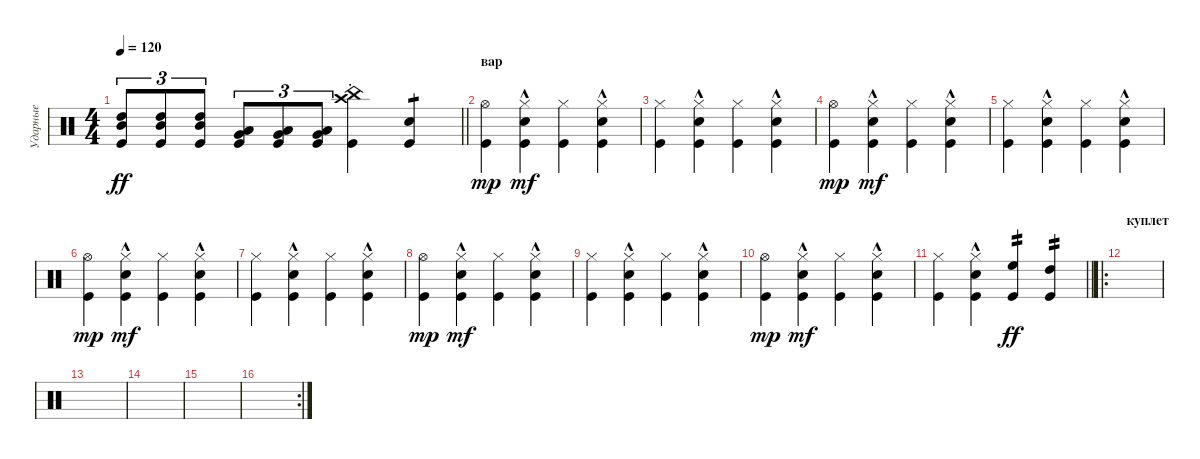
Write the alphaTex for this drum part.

\track ("Ударные" "Ударные") {instrument percussion}
\staff {score}
\articulation defaults
\ts (4 4)
\tempo 120
\clef neutral
\barLineRight lightlight
\ks c
("High Tom (hit)" "Mid Tom (hit)" "Kick (hit)").8{tu (3 2) dy ff} ("High Tom (hit)" "Mid Tom (hit)" "Kick (hit)").8{tu (3 2)} ("Mid Tom (hit)" "High Tom (hit)" "Kick (hit)").8{tu (3 2)} ("Low Tom (hit)" "Very Low Tom (hit)" "Kick (hit)").8{tu (3 2)} ("Low Tom (hit)" "Very Low Tom (hit)" "Kick (hit)").8{tu (3 2)} ("Low Tom (hit)" "Very Low Tom (hit)" "Kick (hit)").8{tu (3 2)} ("Crash high (hit)"{st} "China (hit)"{st} "Kick (hit)"{st}).4 ("Kick (hit)" "Snare (hit) 2").4{tp 1} |
\section ("" "вар")
("Hi-Hat (open)" "Kick (hit)").4{dy mp} ("Snare (hit) 2"{hac} "Hi-Hat (closed)" "Kick (hit)").4{dy mf} ("Hi-Hat (closed)" "Kick (hit)").4 ("Snare (hit) 2"{hac} "Hi-Hat (closed)" "Kick (hit)").4 |
("Hi-Hat (closed)" "Kick (hit)").4 ("Snare (hit) 2"{hac} "Hi-Hat (closed)" "Kick (hit)").4 ("Hi-Hat (closed)" "Kick (hit)").4 ("Snare (hit) 2"{hac} "Hi-Hat (closed)" "Kick (hit)").4 |
("Hi-Hat (open)" "Kick (hit)").4{dy mp} ("Snare (hit) 2"{hac} "Hi-Hat (closed)" "Kick (hit)").4{dy mf} ("Hi-Hat (closed)" "Kick (hit)").4 ("Snare (hit) 2"{hac} "Hi-Hat (closed)" "Kick (hit)").4 |
("Hi-Hat (closed)" "Kick (hit)").4 ("Snare (hit) 2"{hac} "Hi-Hat (closed)" "Kick (hit)").4 ("Hi-Hat (closed)" "Kick (hit)").4 ("Snare (hit) 2"{hac} "Hi-Hat (closed)" "Kick (hit)").4 |
("Hi-Hat (open)" "Kick (hit)").4{dy mp} ("Snare (hit) 2"{hac} "Hi-Hat (closed)" "Kick (hit)").4{dy mf} ("Hi-Hat (closed)" "Kick (hit)").4 ("Snare (hit) 2"{hac} "Hi-Hat (closed)" "Kick (hit)").4 |
("Hi-Hat (closed)" "Kick (hit)").4 ("Snare (hit) 2"{hac} "Hi-Hat (closed)" "Kick (hit)").4 ("Hi-Hat (closed)" "Kick (hit)").4 ("Snare (hit) 2"{hac} "Hi-Hat (closed)" "Kick (hit)").4 |
("Hi-Hat (open)" "Kick (hit)").4{dy mp} ("Snare (hit) 2"{hac} "Hi-Hat (closed)" "Kick (hit)").4{dy mf} ("Hi-Hat (closed)" "Kick (hit)").4 ("Snare (hit) 2"{hac} "Hi-Hat (closed)" "Kick (hit)").4 |
("Hi-Hat (closed)" "Kick (hit)").4 ("Snare (hit) 2"{hac} "Hi-Hat (closed)" "Kick (hit)").4 ("Hi-Hat (closed)" "Kick (hit)").4 ("Snare (hit) 2"{hac} "Hi-Hat (closed)" "Kick (hit)").4 |
("Hi-Hat (open)" "Kick (hit)").4{dy mp} ("Snare (hit) 2"{hac} "Hi-Hat (closed)" "Kick (hit)").4{dy mf} ("Hi-Hat (closed)" "Kick (hit)").4 ("Snare (hit) 2"{hac} "Hi-Hat (closed)" "Kick (hit)").4 |
\barLineRight lightlight
("Hi-Hat (closed)" "Kick (hit)").4 ("Snare (hit) 2"{hac} "Hi-Hat (closed)" "Kick (hit)").4 ("High Floor Tom (hit)" "Kick (hit)").4{tp 2 dy ff} ("High Tom (hit)" "Kick (hit)").4{tp 2} |
\ro
\section ("" "куплет")
|
|
|
|
\rc 2
